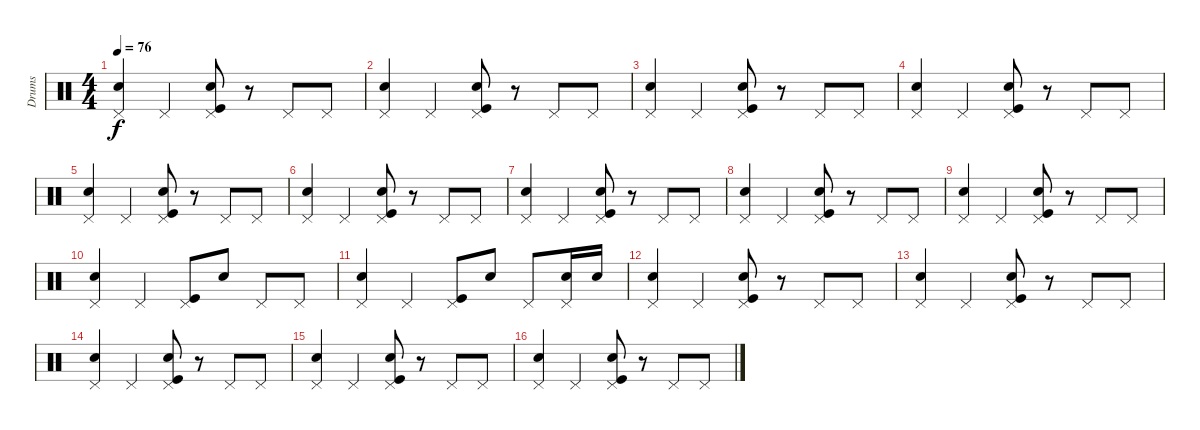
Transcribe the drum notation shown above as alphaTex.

\track ("Drums" "Drums") {instrument percussion}
\staff {score}
\articulation defaults
\ts (4 4)
\tempo 76
\clef neutral
\ks c
("Pedal Hi-Hat (hit)" "Snare (hit) 2").4{dy f} "Pedal Hi-Hat (hit)".4 ("Pedal Hi-Hat (hit)" "Snare (hit) 2" "Kick (hit)").8 r.8 "Pedal Hi-Hat (hit)".8 "Pedal Hi-Hat (hit)".8 |
("Pedal Hi-Hat (hit)" "Snare (hit) 2").4 "Pedal Hi-Hat (hit)".4 ("Pedal Hi-Hat (hit)" "Snare (hit) 2" "Kick (hit)").8 r.8 "Pedal Hi-Hat (hit)".8 "Pedal Hi-Hat (hit)".8 |
("Pedal Hi-Hat (hit)" "Snare (hit) 2").4 "Pedal Hi-Hat (hit)".4 ("Pedal Hi-Hat (hit)" "Snare (hit) 2" "Kick (hit)").8 r.8 "Pedal Hi-Hat (hit)".8 "Pedal Hi-Hat (hit)".8 |
("Pedal Hi-Hat (hit)" "Snare (hit) 2").4 "Pedal Hi-Hat (hit)".4 ("Pedal Hi-Hat (hit)" "Snare (hit) 2" "Kick (hit)").8 r.8 "Pedal Hi-Hat (hit)".8 "Pedal Hi-Hat (hit)".8 |
("Pedal Hi-Hat (hit)" "Snare (hit) 2").4 "Pedal Hi-Hat (hit)".4 ("Pedal Hi-Hat (hit)" "Snare (hit) 2" "Kick (hit)").8 r.8 "Pedal Hi-Hat (hit)".8 "Pedal Hi-Hat (hit)".8 |
("Pedal Hi-Hat (hit)" "Snare (hit) 2").4 "Pedal Hi-Hat (hit)".4 ("Pedal Hi-Hat (hit)" "Snare (hit) 2" "Kick (hit)").8 r.8 "Pedal Hi-Hat (hit)".8 "Pedal Hi-Hat (hit)".8 |
("Pedal Hi-Hat (hit)" "Snare (hit) 2").4 "Pedal Hi-Hat (hit)".4 ("Pedal Hi-Hat (hit)" "Snare (hit) 2" "Kick (hit)").8 r.8 "Pedal Hi-Hat (hit)".8 "Pedal Hi-Hat (hit)".8 |
("Pedal Hi-Hat (hit)" "Snare (hit) 2").4 "Pedal Hi-Hat (hit)".4 ("Pedal Hi-Hat (hit)" "Snare (hit) 2" "Kick (hit)").8 r.8 "Pedal Hi-Hat (hit)".8 "Pedal Hi-Hat (hit)".8 |
("Pedal Hi-Hat (hit)" "Snare (hit) 2").4 "Pedal Hi-Hat (hit)".4 ("Pedal Hi-Hat (hit)" "Snare (hit) 2" "Kick (hit)").8 r.8 "Pedal Hi-Hat (hit)".8 "Pedal Hi-Hat (hit)".8 |
("Pedal Hi-Hat (hit)" "Snare (hit) 2").4 "Pedal Hi-Hat (hit)".4 ("Pedal Hi-Hat (hit)" "Kick (hit)").8 "Snare (hit) 2".8 "Pedal Hi-Hat (hit)".8 "Pedal Hi-Hat (hit)".8 |
("Pedal Hi-Hat (hit)" "Snare (hit) 2").4 "Pedal Hi-Hat (hit)".4 ("Pedal Hi-Hat (hit)" "Kick (hit)").8 "Snare (hit) 2".8 "Pedal Hi-Hat (hit)".8 ("Pedal Hi-Hat (hit)" "Snare (hit) 2").16 "Snare (hit) 2".16 |
("Pedal Hi-Hat (hit)" "Snare (hit) 2").4 "Pedal Hi-Hat (hit)".4 ("Pedal Hi-Hat (hit)" "Snare (hit) 2" "Kick (hit)").8 r.8 "Pedal Hi-Hat (hit)".8 "Pedal Hi-Hat (hit)".8 |
("Pedal Hi-Hat (hit)" "Snare (hit) 2").4 "Pedal Hi-Hat (hit)".4 ("Pedal Hi-Hat (hit)" "Snare (hit) 2" "Kick (hit)").8 r.8 "Pedal Hi-Hat (hit)".8 "Pedal Hi-Hat (hit)".8 |
("Pedal Hi-Hat (hit)" "Snare (hit) 2").4 "Pedal Hi-Hat (hit)".4 ("Pedal Hi-Hat (hit)" "Snare (hit) 2" "Kick (hit)").8 r.8 "Pedal Hi-Hat (hit)".8 "Pedal Hi-Hat (hit)".8 |
("Pedal Hi-Hat (hit)" "Snare (hit) 2").4 "Pedal Hi-Hat (hit)".4 ("Pedal Hi-Hat (hit)" "Snare (hit) 2" "Kick (hit)").8 r.8 "Pedal Hi-Hat (hit)".8 "Pedal Hi-Hat (hit)".8 |
("Pedal Hi-Hat (hit)" "Snare (hit) 2").4 "Pedal Hi-Hat (hit)".4 ("Pedal Hi-Hat (hit)" "Snare (hit) 2" "Kick (hit)").8 r.8 "Pedal Hi-Hat (hit)".8 "Pedal Hi-Hat (hit)".8
